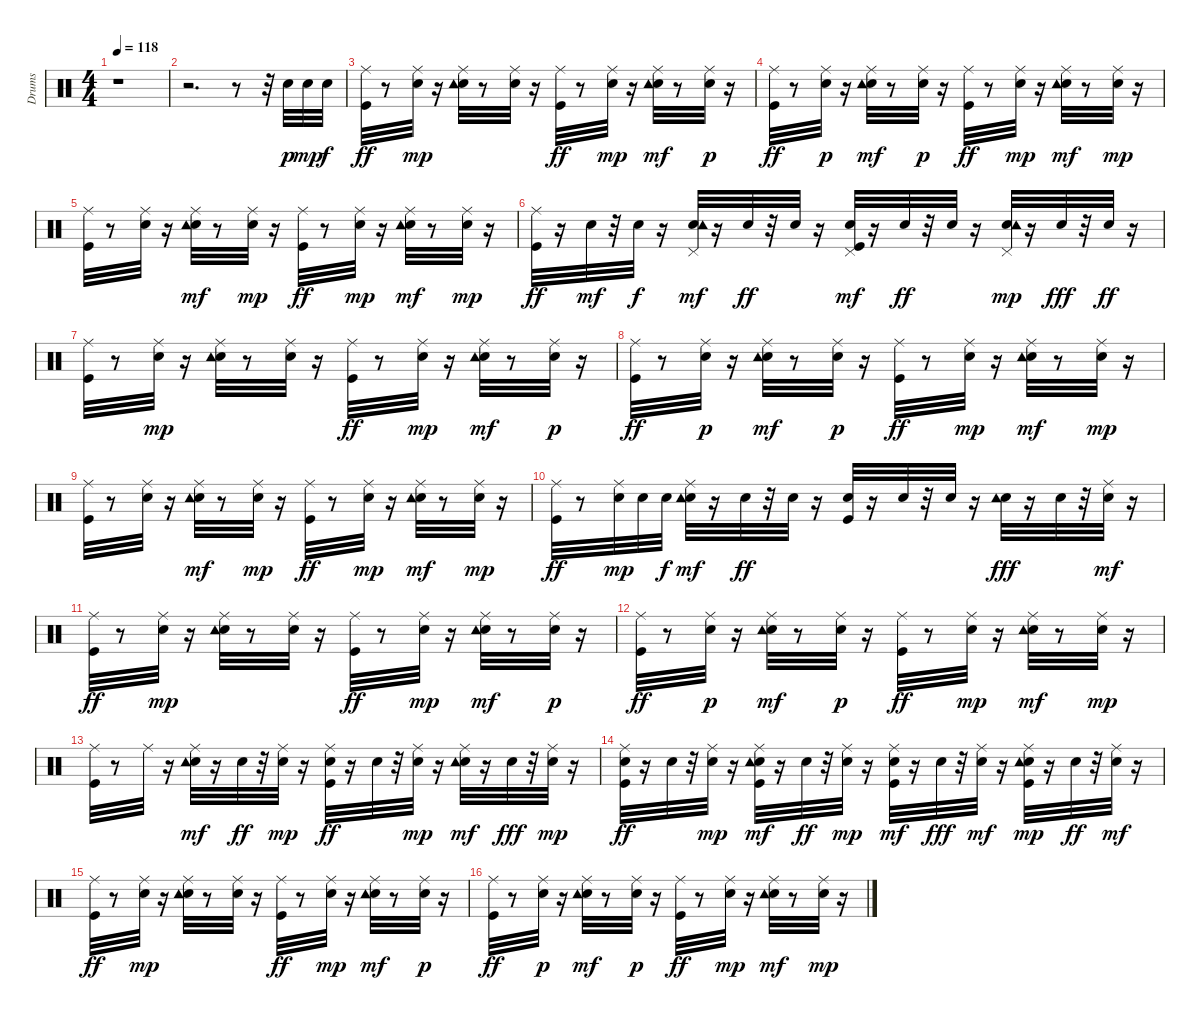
\track ("Drums" "Drums") {instrument percussion}
\staff {score}
\articulation defaults
\ts (4 4)
\tempo 118
\clef neutral
\ks c
r.1{dy p} |
r.2{d} r.8 r.32 "Electric Snare (hit)".32 "Electric Snare (hit)".32{dy mp} "Electric Snare (hit)".32{dy f} |
("Ride (middle)" "Kick (hit)").32{dy ff} r.8 ("Electric Snare (hit)" "Ride (middle)").32{dy mp} r.16 ("Electric Snare (hit)" "Tambourine (hit)" "Ride (middle)").32 r.8 ("Electric Snare (hit)" "Ride (middle)").32 r.16 ("Ride (middle)" "Kick (hit)").32{dy ff} r.8 ("Electric Snare (hit)" "Ride (middle)").32{dy mp} r.16 ("Electric Snare (hit)" "Ride (middle)" "Tambourine (hit)").32{dy mf} r.8 ("Ride (middle)" "Electric Snare (hit)").32{dy p} r.16 |
("Ride (middle)" "Kick (hit)").32{dy ff} r.8 ("Electric Snare (hit)" "Ride (middle)").32{dy p} r.16 ("Electric Snare (hit)" "Ride (middle)" "Tambourine (hit)").32{dy mf} r.8 ("Ride (middle)" "Electric Snare (hit)").32{dy p} r.16 ("Ride (middle)" "Kick (hit)").32{dy ff} r.8 ("Electric Snare (hit)" "Ride (middle)").32{dy mp} r.16 ("Electric Snare (hit)" "Ride (middle)" "Tambourine (hit)").32{dy mf} r.8 ("Electric Snare (hit)" "Ride (middle)").32{dy mp} r.16 |
("Kick (hit)" "Ride (middle)").32 r.8 ("Electric Snare (hit)" "Ride (middle)").32 r.16 ("Electric Snare (hit)" "Ride (middle)" "Tambourine (hit)").32{dy mf} r.8 ("Electric Snare (hit)" "Ride (middle)").32{dy mp} r.16 ("Ride (middle)" "Kick (hit)").32{dy ff} r.8 ("Electric Snare (hit)" "Ride (middle)").32{dy mp} r.16 ("Electric Snare (hit)" "Ride (middle)" "Tambourine (hit)").32{dy mf} r.8 ("Electric Snare (hit)" "Ride (middle)").32{dy mp} r.16 |
("Ride (middle)" "Kick (hit)").32{dy ff} r.16 "Electric Snare (hit)".32{dy mf} r.32 "Electric Snare (hit)".32{dy f} r.16 ("Electric Snare (hit)" "Pedal Hi-Hat (hit)" "Tambourine (hit)").32{dy mf} r.16 "Electric Snare (hit)".32{dy ff} r.32 "Electric Snare (hit)".32 r.16 ("Electric Snare (hit)" "Kick (hit)" "Pedal Hi-Hat (hit)").32{dy mf} r.16 "Electric Snare (hit)".32{dy ff} r.32 "Electric Snare (hit)".32 r.16 ("Electric Snare (hit)" "Pedal Hi-Hat (hit)" "Tambourine (hit)").32{dy mp} r.16 "Electric Snare (hit)".32{dy fff} r.32 "Electric Snare (hit)".32{dy ff} r.16 |
("Ride (middle)" "Kick (hit)").32 r.8 ("Electric Snare (hit)" "Ride (middle)").32{dy mp} r.16 ("Electric Snare (hit)" "Tambourine (hit)" "Ride (middle)").32 r.8 ("Electric Snare (hit)" "Ride (middle)").32 r.16 ("Ride (middle)" "Kick (hit)").32{dy ff} r.8 ("Electric Snare (hit)" "Ride (middle)").32{dy mp} r.16 ("Electric Snare (hit)" "Ride (middle)" "Tambourine (hit)").32{dy mf} r.8 ("Ride (middle)" "Electric Snare (hit)").32{dy p} r.16 |
("Ride (middle)" "Kick (hit)").32{dy ff} r.8 ("Electric Snare (hit)" "Ride (middle)").32{dy p} r.16 ("Electric Snare (hit)" "Ride (middle)" "Tambourine (hit)").32{dy mf} r.8 ("Ride (middle)" "Electric Snare (hit)").32{dy p} r.16 ("Ride (middle)" "Kick (hit)").32{dy ff} r.8 ("Electric Snare (hit)" "Ride (middle)").32{dy mp} r.16 ("Electric Snare (hit)" "Ride (middle)" "Tambourine (hit)").32{dy mf} r.8 ("Electric Snare (hit)" "Ride (middle)").32{dy mp} r.16 |
("Kick (hit)" "Ride (middle)").32 r.8 ("Electric Snare (hit)" "Ride (middle)").32 r.16 ("Electric Snare (hit)" "Ride (middle)" "Tambourine (hit)").32{dy mf} r.8 ("Electric Snare (hit)" "Ride (middle)").32{dy mp} r.16 ("Ride (middle)" "Kick (hit)").32{dy ff} r.8 ("Electric Snare (hit)" "Ride (middle)").32{dy mp} r.16 ("Electric Snare (hit)" "Ride (middle)" "Tambourine (hit)").32{dy mf} r.8 ("Electric Snare (hit)" "Ride (middle)").32{dy mp} r.16 |
("Ride (middle)" "Kick (hit)").32{dy ff} r.8 ("Electric Snare (hit)" "Ride (middle)").32{dy mp} "Electric Snare (hit)".32 "Electric Snare (hit)".32{dy f} ("Electric Snare (hit)" "Ride (middle)" "Tambourine (hit)").32{dy mf} r.16 "Electric Snare (hit)".32{dy ff} r.32 "Electric Snare (hit)".32 r.16 ("Electric Snare (hit)" "Kick (hit)").32 r.16 "Electric Snare (hit)".32 r.32 "Electric Snare (hit)".32 r.16 ("Electric Snare (hit)" "Tambourine (hit)").32{dy fff} r.16 "Electric Snare (hit)".32 r.32 ("Electric Snare (hit)" "Ride (middle)").32{dy mf} r.16 |
("Ride (middle)" "Kick (hit)").32{dy ff} r.8 ("Electric Snare (hit)" "Ride (middle)").32{dy mp} r.16 ("Electric Snare (hit)" "Tambourine (hit)" "Ride (middle)").32 r.8 ("Electric Snare (hit)" "Ride (middle)").32 r.16 ("Ride (middle)" "Kick (hit)").32{dy ff} r.8 ("Electric Snare (hit)" "Ride (middle)").32{dy mp} r.16 ("Electric Snare (hit)" "Ride (middle)" "Tambourine (hit)").32{dy mf} r.8 ("Ride (middle)" "Electric Snare (hit)").32{dy p} r.16 |
("Ride (middle)" "Kick (hit)").32{dy ff} r.8 ("Electric Snare (hit)" "Ride (middle)").32{dy p} r.16 ("Electric Snare (hit)" "Ride (middle)" "Tambourine (hit)").32{dy mf} r.8 ("Ride (middle)" "Electric Snare (hit)").32{dy p} r.16 ("Ride (middle)" "Kick (hit)").32{dy ff} r.8 ("Electric Snare (hit)" "Ride (middle)").32{dy mp} r.16 ("Electric Snare (hit)" "Ride (middle)" "Tambourine (hit)").32{dy mf} r.8 ("Electric Snare (hit)" "Ride (middle)").32{dy mp} r.16 |
("Kick (hit)" "Ride (middle)").32 r.8 "Ride (middle)".32 r.16 ("Electric Snare (hit)" "Ride (middle)" "Tambourine (hit)").32{dy mf} r.16 "Electric Snare (hit)".32{dy ff} r.32 ("Electric Snare (hit)" "Ride (middle)").32{dy mp} r.16 ("Electric Snare (hit)" "Ride (middle)" "Kick (hit)").32{dy ff} r.16 "Electric Snare (hit)".32 r.32 ("Electric Snare (hit)" "Ride (middle)").32{dy mp} r.16 ("Electric Snare (hit)" "Ride (middle)" "Tambourine (hit)").32{dy mf} r.16 "Electric Snare (hit)".32{dy fff} r.32 ("Electric Snare (hit)" "Ride (middle)").32{dy mp} r.16 |
("Electric Snare (hit)" "Ride (middle)" "Kick (hit)").32{dy ff} r.16 "Electric Snare (hit)".32 r.32 ("Electric Snare (hit)" "Ride (middle)").32{dy mp} r.16 ("Electric Snare (hit)" "Kick (hit)" "Ride (middle)" "Tambourine (hit)").32{dy mf} r.16 "Electric Snare (hit)".32{dy ff} r.32 ("Electric Snare (hit)" "Ride (middle)").32{dy mp} r.16 ("Electric Snare (hit)" "Kick (hit)" "Ride (middle)").32{dy mf} r.16 "Electric Snare (hit)".32{dy fff} r.32 ("Electric Snare (hit)" "Ride (middle)").32{dy mf} r.16 ("Electric Snare (hit)" "Kick (hit)" "Ride (middle)" "Tambourine (hit)").32{dy mp} r.16 "Electric Snare (hit)".32{dy ff} r.32 ("Electric Snare (hit)" "Ride (middle)").32{dy mf} r.16 |
("Ride (middle)" "Kick (hit)").32{dy ff} r.8 ("Electric Snare (hit)" "Ride (middle)").32{dy mp} r.16 ("Electric Snare (hit)" "Tambourine (hit)" "Ride (middle)").32 r.8 ("Electric Snare (hit)" "Ride (middle)").32 r.16 ("Ride (middle)" "Kick (hit)").32{dy ff} r.8 ("Electric Snare (hit)" "Ride (middle)").32{dy mp} r.16 ("Electric Snare (hit)" "Ride (middle)" "Tambourine (hit)").32{dy mf} r.8 ("Ride (middle)" "Electric Snare (hit)").32{dy p} r.16 |
("Ride (middle)" "Kick (hit)").32{dy ff} r.8 ("Electric Snare (hit)" "Ride (middle)").32{dy p} r.16 ("Electric Snare (hit)" "Ride (middle)" "Tambourine (hit)").32{dy mf} r.8 ("Ride (middle)" "Electric Snare (hit)").32{dy p} r.16 ("Ride (middle)" "Kick (hit)").32{dy ff} r.8 ("Electric Snare (hit)" "Ride (middle)").32{dy mp} r.16 ("Electric Snare (hit)" "Ride (middle)" "Tambourine (hit)").32{dy mf} r.8 ("Electric Snare (hit)" "Ride (middle)").32{dy mp} r.16
